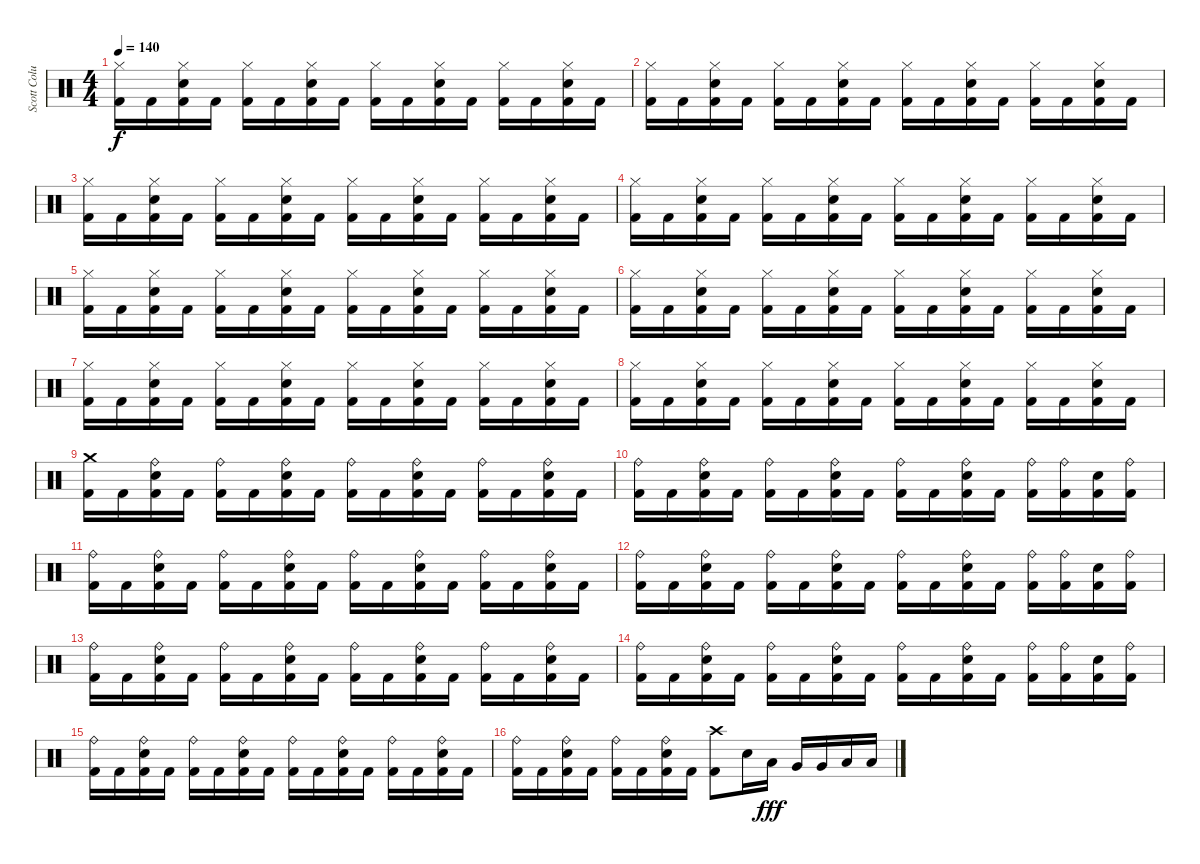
\track ("Scott Columbus(Drums)" "Scott Colu") {instrument percussion}
\staff {score}
\articulation defaults
\ts (4 4)
\tempo 140
\clef neutral
\ks c
("Hi-Hat (closed)" "Kick (hit) 2").16{dy f} "Kick (hit) 2".16 ("Hi-Hat (closed)" "Snare (hit) 2" "Kick (hit) 2").16 "Kick (hit) 2".16 ("Hi-Hat (closed)" "Kick (hit) 2").16 "Kick (hit) 2".16 ("Hi-Hat (closed)" "Snare (hit) 2" "Kick (hit) 2").16 "Kick (hit) 2".16 ("Hi-Hat (closed)" "Kick (hit) 2").16 "Kick (hit) 2".16 ("Hi-Hat (closed)" "Snare (hit) 2" "Kick (hit) 2").16 "Kick (hit) 2".16 ("Hi-Hat (closed)" "Kick (hit) 2").16 "Kick (hit) 2".16 ("Hi-Hat (closed)" "Snare (hit) 2" "Kick (hit) 2").16 "Kick (hit) 2".16 |
("Hi-Hat (closed)" "Kick (hit) 2").16 "Kick (hit) 2".16 ("Hi-Hat (closed)" "Snare (hit) 2" "Kick (hit) 2").16 "Kick (hit) 2".16 ("Hi-Hat (closed)" "Kick (hit) 2").16 "Kick (hit) 2".16 ("Hi-Hat (closed)" "Snare (hit) 2" "Kick (hit) 2").16 "Kick (hit) 2".16 ("Hi-Hat (closed)" "Kick (hit) 2").16 "Kick (hit) 2".16 ("Hi-Hat (closed)" "Snare (hit) 2" "Kick (hit) 2").16 "Kick (hit) 2".16 ("Hi-Hat (closed)" "Kick (hit) 2").16 "Kick (hit) 2".16 ("Hi-Hat (closed)" "Snare (hit) 2" "Kick (hit) 2").16 "Kick (hit) 2".16 |
("Hi-Hat (closed)" "Kick (hit) 2").16 "Kick (hit) 2".16 ("Hi-Hat (closed)" "Snare (hit) 2" "Kick (hit) 2").16 "Kick (hit) 2".16 ("Hi-Hat (closed)" "Kick (hit) 2").16 "Kick (hit) 2".16 ("Hi-Hat (closed)" "Snare (hit) 2" "Kick (hit) 2").16 "Kick (hit) 2".16 ("Hi-Hat (closed)" "Kick (hit) 2").16 "Kick (hit) 2".16 ("Hi-Hat (closed)" "Snare (hit) 2" "Kick (hit) 2").16 "Kick (hit) 2".16 ("Hi-Hat (closed)" "Kick (hit) 2").16 "Kick (hit) 2".16 ("Hi-Hat (closed)" "Snare (hit) 2" "Kick (hit) 2").16 "Kick (hit) 2".16 |
("Hi-Hat (closed)" "Kick (hit) 2").16 "Kick (hit) 2".16 ("Hi-Hat (closed)" "Snare (hit) 2" "Kick (hit) 2").16 "Kick (hit) 2".16 ("Hi-Hat (closed)" "Kick (hit) 2").16 "Kick (hit) 2".16 ("Hi-Hat (closed)" "Snare (hit) 2" "Kick (hit) 2").16 "Kick (hit) 2".16 ("Hi-Hat (closed)" "Kick (hit) 2").16 "Kick (hit) 2".16 ("Hi-Hat (closed)" "Snare (hit) 2" "Kick (hit) 2").16 "Kick (hit) 2".16 ("Hi-Hat (closed)" "Kick (hit) 2").16 "Kick (hit) 2".16 ("Hi-Hat (closed)" "Snare (hit) 2" "Kick (hit) 2").16 "Kick (hit) 2".16 |
("Hi-Hat (closed)" "Kick (hit) 2").16 "Kick (hit) 2".16 ("Hi-Hat (closed)" "Snare (hit) 2" "Kick (hit) 2").16 "Kick (hit) 2".16 ("Hi-Hat (closed)" "Kick (hit) 2").16 "Kick (hit) 2".16 ("Hi-Hat (closed)" "Snare (hit) 2" "Kick (hit) 2").16 "Kick (hit) 2".16 ("Hi-Hat (closed)" "Kick (hit) 2").16 "Kick (hit) 2".16 ("Hi-Hat (closed)" "Snare (hit) 2" "Kick (hit) 2").16 "Kick (hit) 2".16 ("Hi-Hat (closed)" "Kick (hit) 2").16 "Kick (hit) 2".16 ("Hi-Hat (closed)" "Snare (hit) 2" "Kick (hit) 2").16 "Kick (hit) 2".16 |
("Hi-Hat (closed)" "Kick (hit) 2").16 "Kick (hit) 2".16 ("Hi-Hat (closed)" "Snare (hit) 2" "Kick (hit) 2").16 "Kick (hit) 2".16 ("Hi-Hat (closed)" "Kick (hit) 2").16 "Kick (hit) 2".16 ("Hi-Hat (closed)" "Snare (hit) 2" "Kick (hit) 2").16 "Kick (hit) 2".16 ("Hi-Hat (closed)" "Kick (hit) 2").16 "Kick (hit) 2".16 ("Hi-Hat (closed)" "Snare (hit) 2" "Kick (hit) 2").16 "Kick (hit) 2".16 ("Hi-Hat (closed)" "Kick (hit) 2").16 "Kick (hit) 2".16 ("Hi-Hat (closed)" "Snare (hit) 2" "Kick (hit) 2").16 "Kick (hit) 2".16 |
("Hi-Hat (closed)" "Kick (hit) 2").16 "Kick (hit) 2".16 ("Hi-Hat (closed)" "Snare (hit) 2" "Kick (hit) 2").16 "Kick (hit) 2".16 ("Hi-Hat (closed)" "Kick (hit) 2").16 "Kick (hit) 2".16 ("Hi-Hat (closed)" "Snare (hit) 2" "Kick (hit) 2").16 "Kick (hit) 2".16 ("Hi-Hat (closed)" "Kick (hit) 2").16 "Kick (hit) 2".16 ("Hi-Hat (closed)" "Snare (hit) 2" "Kick (hit) 2").16 "Kick (hit) 2".16 ("Hi-Hat (closed)" "Kick (hit) 2").16 "Kick (hit) 2".16 ("Hi-Hat (closed)" "Snare (hit) 2" "Kick (hit) 2").16 "Kick (hit) 2".16 |
("Hi-Hat (closed)" "Kick (hit) 2").16 "Kick (hit) 2".16 ("Hi-Hat (closed)" "Snare (hit) 2" "Kick (hit) 2").16 "Kick (hit) 2".16 ("Hi-Hat (closed)" "Kick (hit) 2").16 "Kick (hit) 2".16 ("Hi-Hat (closed)" "Snare (hit) 2" "Kick (hit) 2").16 "Kick (hit) 2".16 ("Hi-Hat (closed)" "Kick (hit) 2").16 "Kick (hit) 2".16 ("Hi-Hat (closed)" "Snare (hit) 2" "Kick (hit) 2").16 "Kick (hit) 2".16 ("Hi-Hat (closed)" "Kick (hit) 2").16 "Kick (hit) 2".16 ("Hi-Hat (closed)" "Snare (hit) 2" "Kick (hit) 2").16 "Kick (hit) 2".16 |
("Crash medium (hit)" "Kick (hit) 2").16 "Kick (hit) 2".16 ("Ride (bell)" "Snare (hit) 2" "Kick (hit) 2").16 "Kick (hit) 2".16 ("Ride (bell)" "Kick (hit) 2").16 "Kick (hit) 2".16 ("Ride (bell)" "Snare (hit) 2" "Kick (hit) 2").16 "Kick (hit) 2".16 ("Ride (bell)" "Kick (hit) 2").16 "Kick (hit) 2".16 ("Ride (bell)" "Snare (hit) 2" "Kick (hit) 2").16 "Kick (hit) 2".16 ("Ride (bell)" "Kick (hit) 2").16 "Kick (hit) 2".16 ("Ride (bell)" "Snare (hit) 2" "Kick (hit) 2").16 "Kick (hit) 2".16 |
("Ride (bell)" "Kick (hit) 2").16 "Kick (hit) 2".16 ("Ride (bell)" "Snare (hit) 2" "Kick (hit) 2").16 "Kick (hit) 2".16 ("Ride (bell)" "Kick (hit) 2").16 "Kick (hit) 2".16 ("Ride (bell)" "Snare (hit) 2" "Kick (hit) 2").16 "Kick (hit) 2".16 ("Ride (bell)" "Kick (hit) 2").16 "Kick (hit) 2".16 ("Ride (bell)" "Snare (hit) 2" "Kick (hit) 2").16 "Kick (hit) 2".16 ("Ride (bell)" "Kick (hit) 2").16 ("Ride (bell)" "Kick (hit) 2").16 ("Snare (hit) 2" "Kick (hit) 2").16 ("Ride (bell)" "Kick (hit) 2").16 |
("Ride (bell)" "Kick (hit) 2").16 "Kick (hit) 2".16 ("Ride (bell)" "Snare (hit) 2" "Kick (hit) 2").16 "Kick (hit) 2".16 ("Ride (bell)" "Kick (hit) 2").16 "Kick (hit) 2".16 ("Ride (bell)" "Snare (hit) 2" "Kick (hit) 2").16 "Kick (hit) 2".16 ("Ride (bell)" "Kick (hit) 2").16 "Kick (hit) 2".16 ("Ride (bell)" "Snare (hit) 2" "Kick (hit) 2").16 "Kick (hit) 2".16 ("Ride (bell)" "Kick (hit) 2").16 "Kick (hit) 2".16 ("Ride (bell)" "Snare (hit) 2" "Kick (hit) 2").16 "Kick (hit) 2".16 |
("Ride (bell)" "Kick (hit) 2").16 "Kick (hit) 2".16 ("Ride (bell)" "Snare (hit) 2" "Kick (hit) 2").16 "Kick (hit) 2".16 ("Ride (bell)" "Kick (hit) 2").16 "Kick (hit) 2".16 ("Ride (bell)" "Snare (hit) 2" "Kick (hit) 2").16 "Kick (hit) 2".16 ("Ride (bell)" "Kick (hit) 2").16 "Kick (hit) 2".16 ("Ride (bell)" "Snare (hit) 2" "Kick (hit) 2").16 "Kick (hit) 2".16 ("Ride (bell)" "Kick (hit) 2").16 ("Ride (bell)" "Kick (hit) 2").16 ("Snare (hit) 2" "Kick (hit) 2").16 ("Ride (bell)" "Kick (hit) 2").16 |
("Ride (bell)" "Kick (hit) 2").16 "Kick (hit) 2".16 ("Ride (bell)" "Snare (hit) 2" "Kick (hit) 2").16 "Kick (hit) 2".16 ("Ride (bell)" "Kick (hit) 2").16 "Kick (hit) 2".16 ("Ride (bell)" "Snare (hit) 2" "Kick (hit) 2").16 "Kick (hit) 2".16 ("Ride (bell)" "Kick (hit) 2").16 "Kick (hit) 2".16 ("Ride (bell)" "Snare (hit) 2" "Kick (hit) 2").16 "Kick (hit) 2".16 ("Ride (bell)" "Kick (hit) 2").16 "Kick (hit) 2".16 ("Ride (bell)" "Snare (hit) 2" "Kick (hit) 2").16 "Kick (hit) 2".16 |
("Ride (bell)" "Kick (hit) 2").16 "Kick (hit) 2".16 ("Ride (bell)" "Snare (hit) 2" "Kick (hit) 2").16 "Kick (hit) 2".16 ("Ride (bell)" "Kick (hit) 2").16 "Kick (hit) 2".16 ("Ride (bell)" "Snare (hit) 2" "Kick (hit) 2").16 "Kick (hit) 2".16 ("Ride (bell)" "Kick (hit) 2").16 "Kick (hit) 2".16 ("Ride (bell)" "Snare (hit) 2" "Kick (hit) 2").16 "Kick (hit) 2".16 ("Ride (bell)" "Kick (hit) 2").16 ("Ride (bell)" "Kick (hit) 2").16 ("Snare (hit) 2" "Kick (hit) 2").16 ("Ride (bell)" "Kick (hit) 2").16 |
("Ride (bell)" "Kick (hit) 2").16 "Kick (hit) 2".16 ("Ride (bell)" "Snare (hit) 2" "Kick (hit) 2").16 "Kick (hit) 2".16 ("Ride (bell)" "Kick (hit) 2").16 "Kick (hit) 2".16 ("Ride (bell)" "Snare (hit) 2" "Kick (hit) 2").16 "Kick (hit) 2".16 ("Ride (bell)" "Kick (hit) 2").16 "Kick (hit) 2".16 ("Ride (bell)" "Snare (hit) 2" "Kick (hit) 2").16 "Kick (hit) 2".16 ("Ride (bell)" "Kick (hit) 2").16 "Kick (hit) 2".16 ("Ride (bell)" "Snare (hit) 2" "Kick (hit) 2").16 "Kick (hit) 2".16 |
("Ride (bell)" "Kick (hit) 2").16 "Kick (hit) 2".16 ("Ride (bell)" "Snare (hit) 2" "Kick (hit) 2").16 "Kick (hit) 2".16 ("Ride (bell)" "Kick (hit) 2").16 "Kick (hit) 2".16 ("Ride (bell)" "Snare (hit) 2" "Kick (hit) 2").16 "Kick (hit) 2".16 ("Crash high (hit)" "Kick (hit) 2").8 "Snare (hit) 2".16 "Low Tom (hit)".16{dy fff} "Very Low Tom (hit)".16 "Very Low Tom (hit)".16 "Low Floor Tom (hit)".16 "Low Floor Tom (hit)".16
